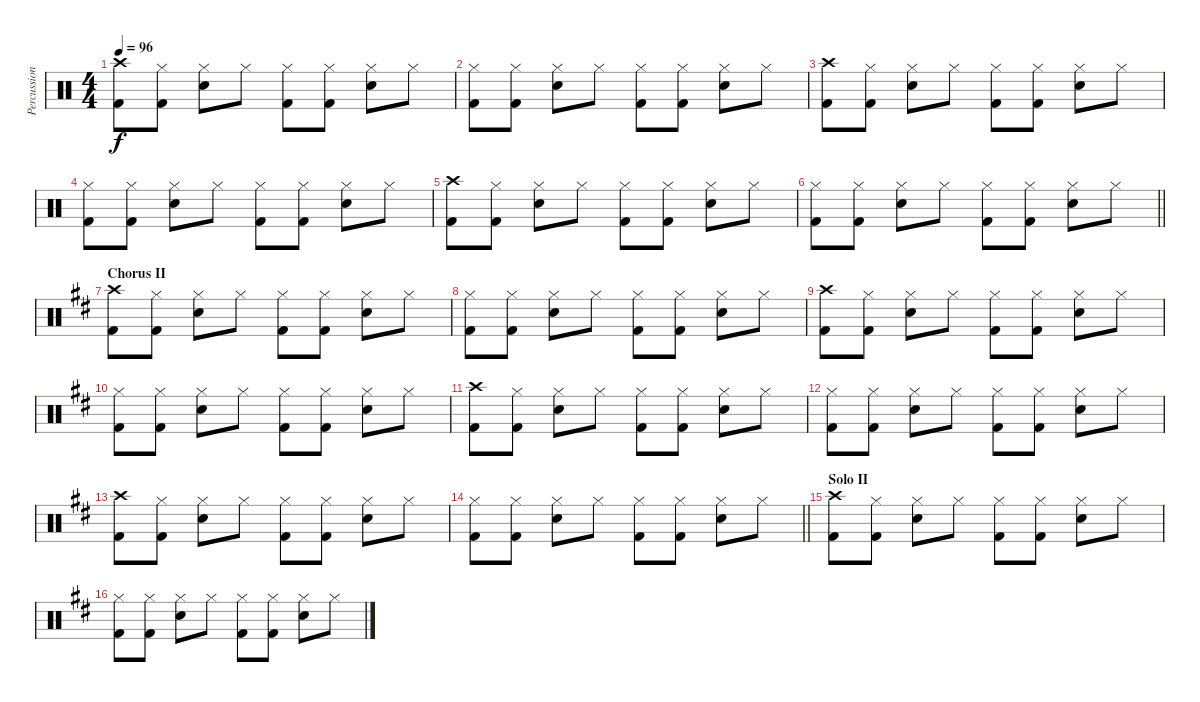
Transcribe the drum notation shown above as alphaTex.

\track ("Percussions" "Percussion") {instrument percussion}
\staff {score}
\articulation defaults
\ts (4 4)
\tempo 96
\clef neutral
\ks c
("Crash high (hit)" "Kick (hit) 2").8{dy f} ("Hi-Hat (closed)" "Kick (hit) 2").8 ("Hi-Hat (closed)" "Snare (hit) 2").8 "Hi-Hat (closed)".8 ("Hi-Hat (closed)" "Kick (hit) 2").8 ("Hi-Hat (closed)" "Kick (hit) 2").8 ("Hi-Hat (closed)" "Snare (hit) 2").8 "Hi-Hat (closed)".8 |
("Hi-Hat (closed)" "Kick (hit) 2").8 ("Hi-Hat (closed)" "Kick (hit) 2").8 ("Hi-Hat (closed)" "Snare (hit) 2").8 "Hi-Hat (closed)".8 ("Hi-Hat (closed)" "Kick (hit) 2").8 ("Hi-Hat (closed)" "Kick (hit) 2").8 ("Hi-Hat (closed)" "Snare (hit) 2").8 "Hi-Hat (closed)".8 |
("Crash high (hit)" "Kick (hit) 2").8 ("Hi-Hat (closed)" "Kick (hit) 2").8 ("Hi-Hat (closed)" "Snare (hit) 2").8 "Hi-Hat (closed)".8 ("Hi-Hat (closed)" "Kick (hit) 2").8 ("Hi-Hat (closed)" "Kick (hit) 2").8 ("Hi-Hat (closed)" "Snare (hit) 2").8 "Hi-Hat (closed)".8 |
("Hi-Hat (closed)" "Kick (hit) 2").8 ("Hi-Hat (closed)" "Kick (hit) 2").8 ("Hi-Hat (closed)" "Snare (hit) 2").8 "Hi-Hat (closed)".8 ("Hi-Hat (closed)" "Kick (hit) 2").8 ("Hi-Hat (closed)" "Kick (hit) 2").8 ("Hi-Hat (closed)" "Snare (hit) 2").8 "Hi-Hat (closed)".8 |
("Crash high (hit)" "Kick (hit) 2").8 ("Hi-Hat (closed)" "Kick (hit) 2").8 ("Hi-Hat (closed)" "Snare (hit) 2").8 "Hi-Hat (closed)".8 ("Hi-Hat (closed)" "Kick (hit) 2").8 ("Hi-Hat (closed)" "Kick (hit) 2").8 ("Hi-Hat (closed)" "Snare (hit) 2").8 "Hi-Hat (closed)".8 |
\barLineRight lightlight
("Hi-Hat (closed)" "Kick (hit) 2").8 ("Hi-Hat (closed)" "Kick (hit) 2").8 ("Hi-Hat (closed)" "Snare (hit) 2").8 "Hi-Hat (closed)".8 ("Hi-Hat (closed)" "Kick (hit) 2").8 ("Hi-Hat (closed)" "Kick (hit) 2").8 ("Hi-Hat (closed)" "Snare (hit) 2").8 "Hi-Hat (closed)".8 |
\section ("" "Chorus II")
\ks d
("Crash high (hit)" "Kick (hit) 2").8 ("Hi-Hat (closed)" "Kick (hit) 2").8 ("Hi-Hat (closed)" "Snare (hit) 2").8 "Hi-Hat (closed)".8 ("Hi-Hat (closed)" "Kick (hit) 2").8 ("Hi-Hat (closed)" "Kick (hit) 2").8 ("Hi-Hat (closed)" "Snare (hit) 2").8 "Hi-Hat (closed)".8 |
("Hi-Hat (closed)" "Kick (hit) 2").8 ("Hi-Hat (closed)" "Kick (hit) 2").8 ("Hi-Hat (closed)" "Snare (hit) 2").8 "Hi-Hat (closed)".8 ("Hi-Hat (closed)" "Kick (hit) 2").8 ("Hi-Hat (closed)" "Kick (hit) 2").8 ("Hi-Hat (closed)" "Snare (hit) 2").8 "Hi-Hat (closed)".8 |
("Crash high (hit)" "Kick (hit) 2").8 ("Hi-Hat (closed)" "Kick (hit) 2").8 ("Hi-Hat (closed)" "Snare (hit) 2").8 "Hi-Hat (closed)".8 ("Hi-Hat (closed)" "Kick (hit) 2").8 ("Hi-Hat (closed)" "Kick (hit) 2").8 ("Hi-Hat (closed)" "Snare (hit) 2").8 "Hi-Hat (closed)".8 |
("Hi-Hat (closed)" "Kick (hit) 2").8 ("Hi-Hat (closed)" "Kick (hit) 2").8 ("Hi-Hat (closed)" "Snare (hit) 2").8 "Hi-Hat (closed)".8 ("Hi-Hat (closed)" "Kick (hit) 2").8 ("Hi-Hat (closed)" "Kick (hit) 2").8 ("Hi-Hat (closed)" "Snare (hit) 2").8 "Hi-Hat (closed)".8 |
("Crash high (hit)" "Kick (hit) 2").8 ("Hi-Hat (closed)" "Kick (hit) 2").8 ("Hi-Hat (closed)" "Snare (hit) 2").8 "Hi-Hat (closed)".8 ("Hi-Hat (closed)" "Kick (hit) 2").8 ("Hi-Hat (closed)" "Kick (hit) 2").8 ("Hi-Hat (closed)" "Snare (hit) 2").8 "Hi-Hat (closed)".8 |
("Hi-Hat (closed)" "Kick (hit) 2").8 ("Hi-Hat (closed)" "Kick (hit) 2").8 ("Hi-Hat (closed)" "Snare (hit) 2").8 "Hi-Hat (closed)".8 ("Hi-Hat (closed)" "Kick (hit) 2").8 ("Hi-Hat (closed)" "Kick (hit) 2").8 ("Hi-Hat (closed)" "Snare (hit) 2").8 "Hi-Hat (closed)".8 |
("Crash high (hit)" "Kick (hit) 2").8 ("Hi-Hat (closed)" "Kick (hit) 2").8 ("Hi-Hat (closed)" "Snare (hit) 2").8 "Hi-Hat (closed)".8 ("Hi-Hat (closed)" "Kick (hit) 2").8 ("Hi-Hat (closed)" "Kick (hit) 2").8 ("Hi-Hat (closed)" "Snare (hit) 2").8 "Hi-Hat (closed)".8 |
\barLineRight lightlight
("Hi-Hat (closed)" "Kick (hit) 2").8 ("Hi-Hat (closed)" "Kick (hit) 2").8 ("Hi-Hat (closed)" "Snare (hit) 2").8 "Hi-Hat (closed)".8 ("Hi-Hat (closed)" "Kick (hit) 2").8 ("Hi-Hat (closed)" "Kick (hit) 2").8 ("Hi-Hat (closed)" "Snare (hit) 2").8 "Hi-Hat (closed)".8 |
\section ("" "Solo II")
("Crash high (hit)" "Kick (hit) 2").8 ("Hi-Hat (closed)" "Kick (hit) 2").8 ("Hi-Hat (closed)" "Snare (hit) 2").8 "Hi-Hat (closed)".8 ("Hi-Hat (closed)" "Kick (hit) 2").8 ("Hi-Hat (closed)" "Kick (hit) 2").8 ("Hi-Hat (closed)" "Snare (hit) 2").8 "Hi-Hat (closed)".8 |
("Hi-Hat (closed)" "Kick (hit) 2").8 ("Hi-Hat (closed)" "Kick (hit) 2").8 ("Hi-Hat (closed)" "Snare (hit) 2").8 "Hi-Hat (closed)".8 ("Hi-Hat (closed)" "Kick (hit) 2").8 ("Hi-Hat (closed)" "Kick (hit) 2").8 ("Hi-Hat (closed)" "Snare (hit) 2").8 "Hi-Hat (closed)".8
